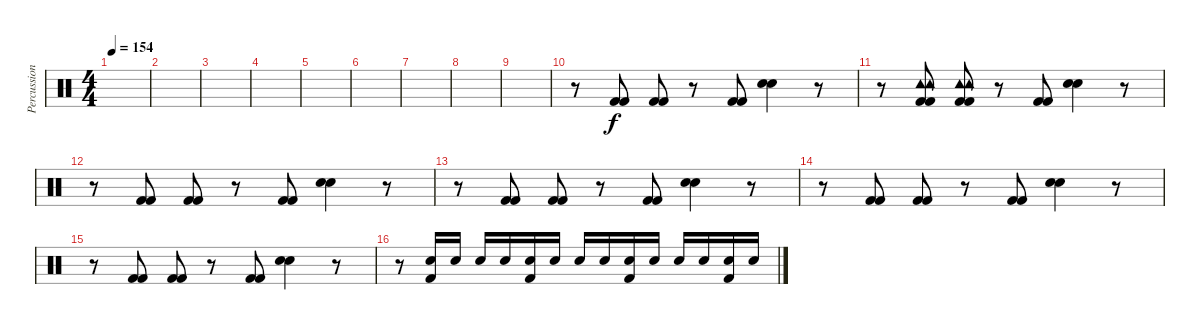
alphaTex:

\track ("Percussion" "Percussion") {instrument percussion}
\staff {score}
\articulation defaults
\ts (4 4)
\tempo 154
\clef neutral
\ks c
|
|
|
|
|
|
|
|
|
r.8 ("Kick (hit) 2" "Kick (hit) 2").8 ("Kick (hit) 2" "Kick (hit) 2").8 r.8 ("Kick (hit) 2" "Kick (hit) 2").8 ("Electric Snare (hit)" "Electric Snare (hit)").4 r.8 |
r.8 ("Tambourine (hit)" "Tambourine (hit)" "Kick (hit) 2" "Kick (hit) 2").8 ("Tambourine (hit)" "Tambourine (hit)" "Kick (hit) 2" "Kick (hit) 2").8 r.8 ("Kick (hit) 2" "Kick (hit) 2").8 ("Electric Snare (hit)" "Electric Snare (hit)").4 r.8 |
r.8 ("Kick (hit) 2" "Kick (hit) 2").8 ("Kick (hit) 2" "Kick (hit) 2").8 r.8 ("Kick (hit) 2" "Kick (hit) 2").8 ("Electric Snare (hit)" "Electric Snare (hit)").4 r.8 |
r.8 ("Kick (hit) 2" "Kick (hit) 2").8 ("Kick (hit) 2" "Kick (hit) 2").8 r.8 ("Kick (hit) 2" "Kick (hit) 2").8 ("Electric Snare (hit)" "Electric Snare (hit)").4 r.8 |
r.8 ("Kick (hit) 2" "Kick (hit) 2").8 ("Kick (hit) 2" "Kick (hit) 2").8 r.8 ("Kick (hit) 2" "Kick (hit) 2").8 ("Electric Snare (hit)" "Electric Snare (hit)").4 r.8 |
r.8 ("Kick (hit) 2" "Kick (hit) 2").8 ("Kick (hit) 2" "Kick (hit) 2").8 r.8 ("Kick (hit) 2" "Kick (hit) 2").8 ("Electric Snare (hit)" "Electric Snare (hit)").4 r.8 |
r.8 ("Electric Snare (hit)" "Kick (hit) 2").16 "Electric Snare (hit)".16 "Electric Snare (hit)".16 "Electric Snare (hit)".16 ("Electric Snare (hit)" "Kick (hit) 2").16 "Electric Snare (hit)".16 "Electric Snare (hit)".16 "Electric Snare (hit)".16 ("Electric Snare (hit)" "Kick (hit) 2").16 "Electric Snare (hit)".16 "Electric Snare (hit)".16 "Electric Snare (hit)".16 ("Electric Snare (hit)" "Kick (hit) 2").16 "Electric Snare (hit)".16
